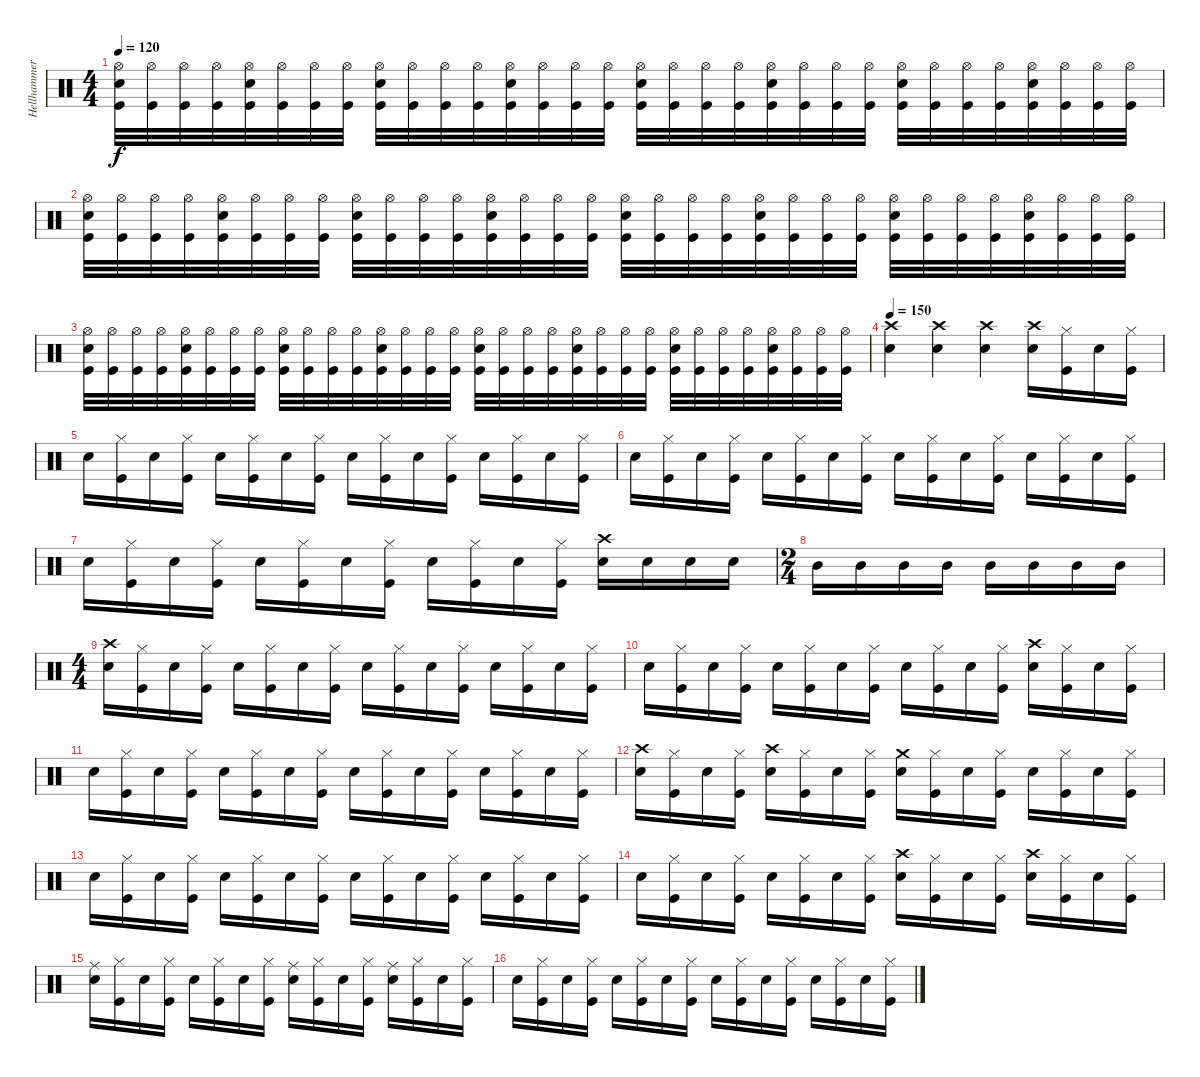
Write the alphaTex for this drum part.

\track ("Hellhammer" "Hellhammer") {instrument percussion}
\staff {score}
\articulation defaults
\ts (4 4)
\tempo 120
\clef neutral
\ks c
("Kick (hit)" "Snare (hit) 2" "Hi-Hat (open)").32{dy f} ("Kick (hit)" "Hi-Hat (open)").32 ("Kick (hit)" "Hi-Hat (open)").32 ("Kick (hit)" "Hi-Hat (open)").32 ("Kick (hit)" "Snare (hit) 2" "Hi-Hat (open)").32 ("Kick (hit)" "Hi-Hat (open)").32 ("Kick (hit)" "Hi-Hat (open)").32 ("Kick (hit)" "Hi-Hat (open)").32 ("Kick (hit)" "Snare (hit) 2" "Hi-Hat (open)").32 ("Kick (hit)" "Hi-Hat (open)").32 ("Kick (hit)" "Hi-Hat (open)").32 ("Kick (hit)" "Hi-Hat (open)").32 ("Kick (hit)" "Snare (hit) 2" "Hi-Hat (open)").32 ("Kick (hit)" "Hi-Hat (open)").32 ("Kick (hit)" "Hi-Hat (open)").32 ("Kick (hit)" "Hi-Hat (open)").32 ("Kick (hit)" "Snare (hit) 2" "Hi-Hat (open)").32 ("Kick (hit)" "Hi-Hat (open)").32 ("Kick (hit)" "Hi-Hat (open)").32 ("Kick (hit)" "Hi-Hat (open)").32 ("Kick (hit)" "Snare (hit) 2" "Hi-Hat (open)").32 ("Kick (hit)" "Hi-Hat (open)").32 ("Kick (hit)" "Hi-Hat (open)").32 ("Kick (hit)" "Hi-Hat (open)").32 ("Kick (hit)" "Snare (hit) 2" "Hi-Hat (open)").32 ("Kick (hit)" "Hi-Hat (open)").32 ("Kick (hit)" "Hi-Hat (open)").32 ("Kick (hit)" "Hi-Hat (open)").32 ("Kick (hit)" "Snare (hit) 2" "Hi-Hat (open)").32 ("Kick (hit)" "Hi-Hat (open)").32 ("Kick (hit)" "Hi-Hat (open)").32 ("Kick (hit)" "Hi-Hat (open)").32 |
("Kick (hit)" "Snare (hit) 2" "Hi-Hat (open)").32 ("Kick (hit)" "Hi-Hat (open)").32 ("Kick (hit)" "Hi-Hat (open)").32 ("Kick (hit)" "Hi-Hat (open)").32 ("Kick (hit)" "Snare (hit) 2" "Hi-Hat (open)").32 ("Kick (hit)" "Hi-Hat (open)").32 ("Kick (hit)" "Hi-Hat (open)").32 ("Kick (hit)" "Hi-Hat (open)").32 ("Kick (hit)" "Snare (hit) 2" "Hi-Hat (open)").32 ("Kick (hit)" "Hi-Hat (open)").32 ("Kick (hit)" "Hi-Hat (open)").32 ("Kick (hit)" "Hi-Hat (open)").32 ("Kick (hit)" "Snare (hit) 2" "Hi-Hat (open)").32 ("Kick (hit)" "Hi-Hat (open)").32 ("Kick (hit)" "Hi-Hat (open)").32 ("Kick (hit)" "Hi-Hat (open)").32 ("Kick (hit)" "Snare (hit) 2" "Hi-Hat (open)").32 ("Kick (hit)" "Hi-Hat (open)").32 ("Kick (hit)" "Hi-Hat (open)").32 ("Kick (hit)" "Hi-Hat (open)").32 ("Kick (hit)" "Snare (hit) 2" "Hi-Hat (open)").32 ("Kick (hit)" "Hi-Hat (open)").32 ("Kick (hit)" "Hi-Hat (open)").32 ("Kick (hit)" "Hi-Hat (open)").32 ("Kick (hit)" "Snare (hit) 2" "Hi-Hat (open)").32 ("Kick (hit)" "Hi-Hat (open)").32 ("Kick (hit)" "Hi-Hat (open)").32 ("Kick (hit)" "Hi-Hat (open)").32 ("Kick (hit)" "Snare (hit) 2" "Hi-Hat (open)").32 ("Kick (hit)" "Hi-Hat (open)").32 ("Kick (hit)" "Hi-Hat (open)").32 ("Kick (hit)" "Hi-Hat (open)").32 |
("Kick (hit)" "Snare (hit) 2" "Hi-Hat (open)").32 ("Kick (hit)" "Hi-Hat (open)").32 ("Kick (hit)" "Hi-Hat (open)").32 ("Kick (hit)" "Hi-Hat (open)").32 ("Kick (hit)" "Snare (hit) 2" "Hi-Hat (open)").32 ("Kick (hit)" "Hi-Hat (open)").32 ("Kick (hit)" "Hi-Hat (open)").32 ("Kick (hit)" "Hi-Hat (open)").32 ("Kick (hit)" "Snare (hit) 2" "Hi-Hat (open)").32 ("Kick (hit)" "Hi-Hat (open)").32 ("Kick (hit)" "Hi-Hat (open)").32 ("Kick (hit)" "Hi-Hat (open)").32 ("Kick (hit)" "Snare (hit) 2" "Hi-Hat (open)").32 ("Kick (hit)" "Hi-Hat (open)").32 ("Kick (hit)" "Hi-Hat (open)").32 ("Kick (hit)" "Hi-Hat (open)").32 ("Kick (hit)" "Snare (hit) 2" "Hi-Hat (open)").32 ("Kick (hit)" "Hi-Hat (open)").32 ("Kick (hit)" "Hi-Hat (open)").32 ("Kick (hit)" "Hi-Hat (open)").32 ("Kick (hit)" "Snare (hit) 2" "Hi-Hat (open)").32 ("Kick (hit)" "Hi-Hat (open)").32 ("Kick (hit)" "Hi-Hat (open)").32 ("Kick (hit)" "Hi-Hat (open)").32 ("Kick (hit)" "Snare (hit) 2" "Hi-Hat (open)").32 ("Kick (hit)" "Hi-Hat (open)").32 ("Kick (hit)" "Hi-Hat (open)").32 ("Kick (hit)" "Hi-Hat (open)").32 ("Kick (hit)" "Snare (hit) 2" "Hi-Hat (open)").32 ("Kick (hit)" "Hi-Hat (open)").32 ("Kick (hit)" "Hi-Hat (open)").32 ("Kick (hit)" "Hi-Hat (open)").32 |
\tempo 150
("Snare (hit) 2" "Crash high (hit)").4 ("Snare (hit) 2" "Crash high (hit)").4 ("Snare (hit) 2" "Crash high (hit)").4 ("Snare (hit) 2" "Crash high (hit)").16 ("Kick (hit)" "Hi-Hat (closed)").16 "Snare (hit) 2".16 ("Kick (hit)" "Hi-Hat (closed)").16 |
"Snare (hit) 2".16 ("Kick (hit)" "Hi-Hat (closed)").16 "Snare (hit) 2".16 ("Kick (hit)" "Hi-Hat (closed)").16 "Snare (hit) 2".16 ("Kick (hit)" "Hi-Hat (closed)").16 "Snare (hit) 2".16 ("Kick (hit)" "Hi-Hat (closed)").16 "Snare (hit) 2".16 ("Kick (hit)" "Hi-Hat (closed)").16 "Snare (hit) 2".16 ("Kick (hit)" "Hi-Hat (closed)").16 "Snare (hit) 2".16 ("Kick (hit)" "Hi-Hat (closed)").16 "Snare (hit) 2".16 ("Kick (hit)" "Hi-Hat (closed)").16 |
"Snare (hit) 2".16 ("Kick (hit)" "Hi-Hat (closed)").16 "Snare (hit) 2".16 ("Kick (hit)" "Hi-Hat (closed)").16 "Snare (hit) 2".16 ("Kick (hit)" "Hi-Hat (closed)").16 "Snare (hit) 2".16 ("Kick (hit)" "Hi-Hat (closed)").16 "Snare (hit) 2".16 ("Kick (hit)" "Hi-Hat (closed)").16 "Snare (hit) 2".16 ("Kick (hit)" "Hi-Hat (closed)").16 "Snare (hit) 2".16 ("Kick (hit)" "Hi-Hat (closed)").16 "Snare (hit) 2".16 ("Kick (hit)" "Hi-Hat (closed)").16 |
"Snare (hit) 2".16 ("Kick (hit)" "Hi-Hat (closed)").16 "Snare (hit) 2".16 ("Kick (hit)" "Hi-Hat (closed)").16 "Snare (hit) 2".16 ("Kick (hit)" "Hi-Hat (closed)").16 "Snare (hit) 2".16 ("Kick (hit)" "Hi-Hat (closed)").16 "Snare (hit) 2".16 ("Kick (hit)" "Hi-Hat (closed)").16 "Snare (hit) 2".16 ("Kick (hit)" "Hi-Hat (closed)").16 ("Snare (hit) 2" "Crash high (hit)").16 "Snare (hit) 2".16 "Snare (hit) 2".16 "Snare (hit) 2".16 |
\ts (2 4)
"Mid Tom (hit)".16 "Mid Tom (hit)".16 "Mid Tom (hit)".16 "Mid Tom (hit)".16 "Mid Tom (hit)".16 "Mid Tom (hit)".16 "Mid Tom (hit)".16 "Mid Tom (hit)".16 |
\ts (4 4)
("Snare (hit) 2" "Crash high (hit)").16 ("Kick (hit)" "Hi-Hat (closed)").16 "Snare (hit) 2".16 ("Kick (hit)" "Hi-Hat (closed)").16 "Snare (hit) 2".16 ("Kick (hit)" "Hi-Hat (closed)").16 "Snare (hit) 2".16 ("Kick (hit)" "Hi-Hat (closed)").16 "Snare (hit) 2".16 ("Kick (hit)" "Hi-Hat (closed)").16 "Snare (hit) 2".16 ("Kick (hit)" "Hi-Hat (closed)").16 "Snare (hit) 2".16 ("Kick (hit)" "Hi-Hat (closed)").16 "Snare (hit) 2".16 ("Kick (hit)" "Hi-Hat (closed)").16 |
"Snare (hit) 2".16 ("Kick (hit)" "Hi-Hat (closed)").16 "Snare (hit) 2".16 ("Kick (hit)" "Hi-Hat (closed)").16 "Snare (hit) 2".16 ("Kick (hit)" "Hi-Hat (closed)").16 "Snare (hit) 2".16 ("Kick (hit)" "Hi-Hat (closed)").16 "Snare (hit) 2".16 ("Kick (hit)" "Hi-Hat (closed)").16 "Snare (hit) 2".16 ("Kick (hit)" "Hi-Hat (closed)").16 ("Snare (hit) 2" "Crash high (hit)").16 ("Kick (hit)" "Hi-Hat (closed)").16 "Snare (hit) 2".16 ("Kick (hit)" "Hi-Hat (closed)").16 |
"Snare (hit) 2".16 ("Kick (hit)" "Hi-Hat (closed)").16 "Snare (hit) 2".16 ("Kick (hit)" "Hi-Hat (closed)").16 "Snare (hit) 2".16 ("Kick (hit)" "Hi-Hat (closed)").16 "Snare (hit) 2".16 ("Kick (hit)" "Hi-Hat (closed)").16 "Snare (hit) 2".16 ("Kick (hit)" "Hi-Hat (closed)").16 "Snare (hit) 2".16 ("Kick (hit)" "Hi-Hat (closed)").16 "Snare (hit) 2".16 ("Kick (hit)" "Hi-Hat (closed)").16 "Snare (hit) 2".16 ("Kick (hit)" "Hi-Hat (closed)").16 |
("Snare (hit) 2" "Crash high (hit)").16 ("Kick (hit)" "Hi-Hat (closed)").16 "Snare (hit) 2".16 ("Kick (hit)" "Hi-Hat (closed)").16 ("Snare (hit) 2" "Crash high (hit)").16 ("Kick (hit)" "Hi-Hat (closed)").16 "Snare (hit) 2".16 ("Kick (hit)" "Hi-Hat (closed)").16 ("Snare (hit) 2" "Crash medium (hit)").16 ("Kick (hit)" "Hi-Hat (closed)").16 "Snare (hit) 2".16 ("Kick (hit)" "Hi-Hat (closed)").16 "Snare (hit) 2".16 ("Kick (hit)" "Hi-Hat (closed)").16 "Snare (hit) 2".16 ("Kick (hit)" "Hi-Hat (closed)").16 |
"Snare (hit) 2".16 ("Kick (hit)" "Hi-Hat (closed)").16 "Snare (hit) 2".16 ("Kick (hit)" "Hi-Hat (closed)").16 "Snare (hit) 2".16 ("Kick (hit)" "Hi-Hat (closed)").16 "Snare (hit) 2".16 ("Kick (hit)" "Hi-Hat (closed)").16 "Snare (hit) 2".16 ("Kick (hit)" "Hi-Hat (closed)").16 "Snare (hit) 2".16 ("Kick (hit)" "Hi-Hat (closed)").16 "Snare (hit) 2".16 ("Kick (hit)" "Hi-Hat (closed)").16 "Snare (hit) 2".16 ("Kick (hit)" "Hi-Hat (closed)").16 |
"Snare (hit) 2".16 ("Kick (hit)" "Hi-Hat (closed)").16 "Snare (hit) 2".16 ("Kick (hit)" "Hi-Hat (closed)").16 "Snare (hit) 2".16 ("Kick (hit)" "Hi-Hat (closed)").16 "Snare (hit) 2".16 ("Kick (hit)" "Hi-Hat (closed)").16 ("Snare (hit) 2" "Crash high (hit)").16 ("Kick (hit)" "Hi-Hat (closed)").16 "Snare (hit) 2".16 ("Kick (hit)" "Hi-Hat (closed)").16 ("Snare (hit) 2" "Crash high (hit)").16 ("Kick (hit)" "Hi-Hat (closed)").16 "Snare (hit) 2".16 ("Kick (hit)" "Hi-Hat (closed)").16 |
("Snare (hit) 2" "Ride (middle)").16 ("Kick (hit)" "Hi-Hat (closed)").16 "Snare (hit) 2".16 ("Kick (hit)" "Hi-Hat (closed)").16 "Snare (hit) 2".16 ("Kick (hit)" "Hi-Hat (closed)").16 "Snare (hit) 2".16 ("Kick (hit)" "Hi-Hat (closed)").16 ("Snare (hit) 2" "Ride (middle)").16 ("Kick (hit)" "Hi-Hat (closed)").16 "Snare (hit) 2".16 ("Kick (hit)" "Hi-Hat (closed)").16 ("Snare (hit) 2" "Ride (middle)").16 ("Kick (hit)" "Hi-Hat (closed)").16 "Snare (hit) 2".16 ("Kick (hit)" "Hi-Hat (closed)").16 |
"Snare (hit) 2".16 ("Kick (hit)" "Hi-Hat (closed)").16 "Snare (hit) 2".16 ("Kick (hit)" "Hi-Hat (closed)").16 "Snare (hit) 2".16 ("Kick (hit)" "Hi-Hat (closed)").16 "Snare (hit) 2".16 ("Kick (hit)" "Hi-Hat (closed)").16 "Snare (hit) 2".16 ("Kick (hit)" "Hi-Hat (closed)").16 "Snare (hit) 2".16 ("Kick (hit)" "Hi-Hat (closed)").16 "Snare (hit) 2".16 ("Kick (hit)" "Hi-Hat (closed)").16 "Snare (hit) 2".16 ("Kick (hit)" "Hi-Hat (closed)").16
